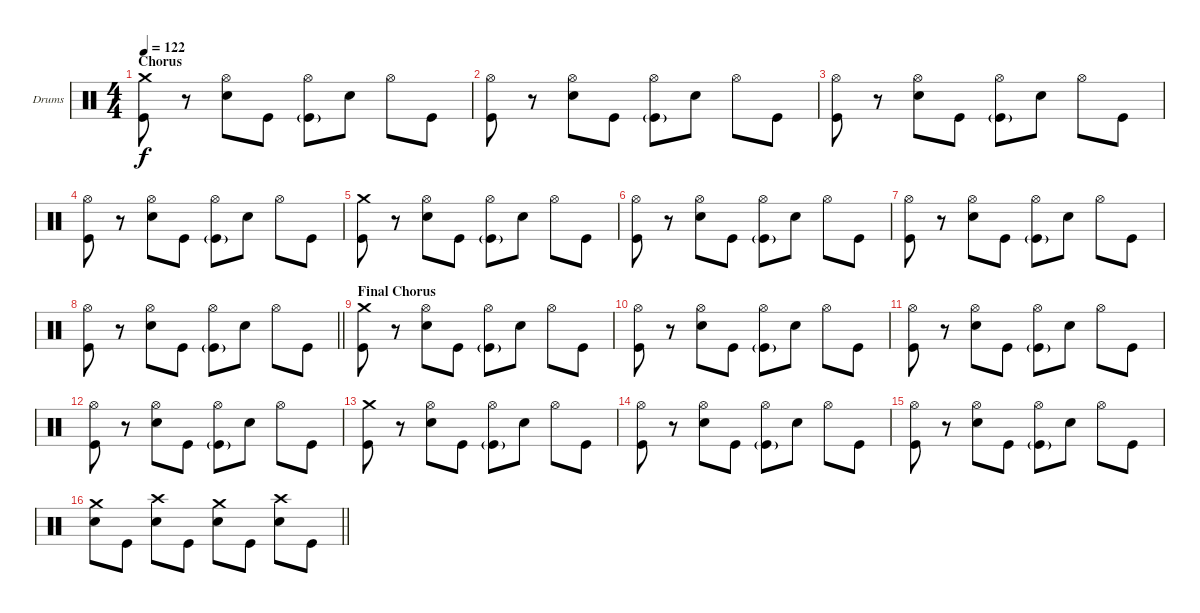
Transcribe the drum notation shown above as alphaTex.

\bracketExtendMode groupsimilarinstruments
\firstSystemTrackNameOrientation horizontal
\otherSystemsTrackNameOrientation horizontal
\track ("Drumkit" "Drums") {instrument percussion}
\staff {score}
\articulation defaults
\ts (4 4)
\section ("" "Chorus")
\tempo 122
\clef neutral
\ks c
("Crash medium (hit)" "Kick (hit)").8{dy f} r.8 ("Hi-Hat (open)" "Snare (hit) 2").8 "Kick (hit)".8 ("Hi-Hat (open)" "Kick (hit)"{g}).8 "Snare (hit) 2".8 "Hi-Hat (open)".8 "Kick (hit)".8 |
("Hi-Hat (open)" "Kick (hit)").8 r.8 ("Hi-Hat (open)" "Snare (hit) 2").8 "Kick (hit)".8 ("Hi-Hat (open)" "Kick (hit)"{g}).8 "Snare (hit) 2".8 "Hi-Hat (open)".8 "Kick (hit)".8 |
("Hi-Hat (open)" "Kick (hit)").8 r.8 ("Hi-Hat (open)" "Snare (hit) 2").8 "Kick (hit)".8 ("Hi-Hat (open)" "Kick (hit)"{g}).8 "Snare (hit) 2".8 "Hi-Hat (open)".8 "Kick (hit)".8 |
("Hi-Hat (open)" "Kick (hit)").8 r.8 ("Hi-Hat (open)" "Snare (hit) 2").8 "Kick (hit)".8 ("Hi-Hat (open)" "Kick (hit)"{g}).8 "Snare (hit) 2".8 "Hi-Hat (open)".8 "Kick (hit)".8 |
("Crash medium (hit)" "Kick (hit)").8 r.8 ("Hi-Hat (open)" "Snare (hit) 2").8 "Kick (hit)".8 ("Hi-Hat (open)" "Kick (hit)"{g}).8 "Snare (hit) 2".8 "Hi-Hat (open)".8 "Kick (hit)".8 |
("Hi-Hat (open)" "Kick (hit)").8 r.8 ("Hi-Hat (open)" "Snare (hit) 2").8 "Kick (hit)".8 ("Hi-Hat (open)" "Kick (hit)"{g}).8 "Snare (hit) 2".8 "Hi-Hat (open)".8 "Kick (hit)".8 |
("Hi-Hat (open)" "Kick (hit)").8 r.8 ("Hi-Hat (open)" "Snare (hit) 2").8 "Kick (hit)".8 ("Hi-Hat (open)" "Kick (hit)"{g}).8 "Snare (hit) 2".8 "Hi-Hat (open)".8 "Kick (hit)".8 |
\barLineRight lightlight
("Hi-Hat (open)" "Kick (hit)").8 r.8 ("Hi-Hat (open)" "Snare (hit) 2").8 "Kick (hit)".8 ("Hi-Hat (open)" "Kick (hit)"{g}).8 "Snare (hit) 2".8 "Hi-Hat (open)".8 "Kick (hit)".8 |
\section ("" "Final Chorus")
("Crash medium (hit)" "Kick (hit)").8 r.8 ("Hi-Hat (open)" "Snare (hit) 2").8 "Kick (hit)".8 ("Hi-Hat (open)" "Kick (hit)"{g}).8 "Snare (hit) 2".8 "Hi-Hat (open)".8 "Kick (hit)".8 |
("Hi-Hat (open)" "Kick (hit)").8 r.8 ("Hi-Hat (open)" "Snare (hit) 2").8 "Kick (hit)".8 ("Hi-Hat (open)" "Kick (hit)"{g}).8 "Snare (hit) 2".8 "Hi-Hat (open)".8 "Kick (hit)".8 |
("Hi-Hat (open)" "Kick (hit)").8 r.8 ("Hi-Hat (open)" "Snare (hit) 2").8 "Kick (hit)".8 ("Hi-Hat (open)" "Kick (hit)"{g}).8 "Snare (hit) 2".8 "Hi-Hat (open)".8 "Kick (hit)".8 |
("Hi-Hat (open)" "Kick (hit)").8 r.8 ("Hi-Hat (open)" "Snare (hit) 2").8 "Kick (hit)".8 ("Hi-Hat (open)" "Kick (hit)"{g}).8 "Snare (hit) 2".8 "Hi-Hat (open)".8 "Kick (hit)".8 |
("Crash medium (hit)" "Kick (hit)").8 r.8 ("Hi-Hat (open)" "Snare (hit) 2").8 "Kick (hit)".8 ("Hi-Hat (open)" "Kick (hit)"{g}).8 "Snare (hit) 2".8 "Hi-Hat (open)".8 "Kick (hit)".8 |
("Hi-Hat (open)" "Kick (hit)").8 r.8 ("Hi-Hat (open)" "Snare (hit) 2").8 "Kick (hit)".8 ("Hi-Hat (open)" "Kick (hit)"{g}).8 "Snare (hit) 2".8 "Hi-Hat (open)".8 "Kick (hit)".8 |
("Hi-Hat (open)" "Kick (hit)").8 r.8 ("Hi-Hat (open)" "Snare (hit) 2").8 "Kick (hit)".8 ("Hi-Hat (open)" "Kick (hit)"{g}).8 "Snare (hit) 2".8 "Hi-Hat (open)".8 "Kick (hit)".8 |
\barLineRight lightlight
("Crash medium (hit)" "Snare (hit) 2").8 "Kick (hit)".8 ("Crash high (hit)" "Snare (hit) 2").8 "Kick (hit)".8 ("Crash medium (hit)" "Snare (hit) 2").8 "Kick (hit)".8 ("Crash high (hit)" "Snare (hit) 2").8 "Kick (hit)".8
